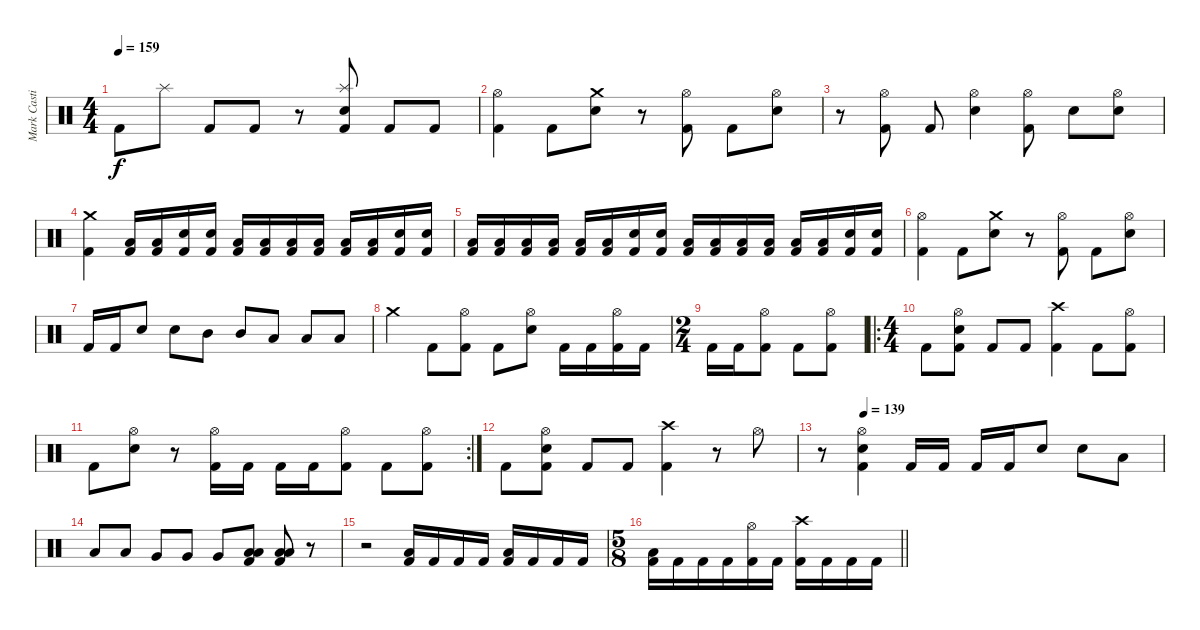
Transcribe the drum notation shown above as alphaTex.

\track ("Mark Castillo" "Mark Casti") {instrument percussion}
\staff {score}
\articulation defaults
\ts (4 4)
\tempo 159
\clef neutral
\ks c "Kick (hit) 2".8{dy f} "Splash (hit)".8 "Kick (hit) 2".8 "Kick (hit) 2".8
r.8 ("Splash (hit)" "Snare (hit) 2" "Kick (hit) 2").8 "Kick (hit) 2".8 "Kick (hit) 2".8 |
("Hi-Hat (open)" "Kick (hit) 2").4 "Kick (hit) 2".8 ("Crash medium (hit)" "Snare (hit) 2").8 r.8 ("Hi-Hat (open)" "Kick (hit) 2").8 "Kick (hit) 2".8 ("Hi-Hat (open)" "Snare (hit) 2").8 |
r.8 ("Hi-Hat (open)" "Kick (hit) 2").8 "Kick (hit) 2".8 ("Hi-Hat (open)" "Snare (hit) 2").4 ("Hi-Hat (open)" "Kick (hit) 2").8 "Snare (hit) 2".8 ("Hi-Hat (open)" "Snare (hit) 2").8 |
("Crash medium (hit)" "Kick (hit) 2").4 ("Low Tom (hit)" "Kick (hit) 2").16 ("Low Tom (hit)" "Kick (hit) 2").16 ("Snare (hit) 2" "Kick (hit) 2").16 ("Snare (hit) 2" "Kick (hit) 2").16 ("Low Tom (hit)" "Kick (hit) 2").16 ("Low Tom (hit)" "Kick (hit) 2").16 ("Low Tom (hit)" "Kick (hit) 2").16 ("Low Tom (hit)" "Kick (hit) 2").16 ("Low Tom (hit)" "Kick (hit) 2").16 ("Low Tom (hit)" "Kick (hit) 2").16 ("Snare (hit) 2" "Kick (hit) 2").16 ("Snare (hit) 2" "Kick (hit) 2").16 |
("Low Tom (hit)" "Kick (hit) 2").16 ("Low Tom (hit)" "Kick (hit) 2").16 ("Low Tom (hit)" "Kick (hit) 2").16 ("Low Tom (hit)" "Kick (hit) 2").16 ("Low Tom (hit)" "Kick (hit) 2").16 ("Low Tom (hit)" "Kick (hit) 2").16 ("Snare (hit) 2" "Kick (hit) 2").16 ("Snare (hit) 2" "Kick (hit) 2").16 ("Low Tom (hit)" "Kick (hit) 2").16 ("Low Tom (hit)" "Kick (hit) 2").16 ("Low Tom (hit)" "Kick (hit) 2").16 ("Low Tom (hit)" "Kick (hit) 2").16 ("Low Tom (hit)" "Kick (hit) 2").16 ("Low Tom (hit)" "Kick (hit) 2").16 ("Snare (hit) 2" "Kick (hit) 2").16 ("Snare (hit) 2" "Kick (hit) 2").16 |
("Hi-Hat (open)" "Kick (hit) 2").4 "Kick (hit) 2".8 ("Crash medium (hit)" "Snare (hit) 2").8 r.8 ("Hi-Hat (open)" "Kick (hit) 2").8 "Kick (hit) 2".8 ("Hi-Hat (open)" "Snare (hit) 2").8 |
"Kick (hit) 2".16 "Kick (hit) 2".16 "Snare (hit) 2".8 "Snare (hit) 2".8 "Mid Tom (hit)".8 "Mid Tom (hit)".8 "Low Tom (hit)".8 "Low Tom (hit)".8 "Low Floor Tom (hit)".8 |
"Crash medium (hit)".4 "Kick (hit) 2".8 ("Hi-Hat (open)" "Kick (hit) 2").8 "Kick (hit) 2".8 ("Hi-Hat (open)" "Snare (hit) 2").8 "Kick (hit) 2".16 "Kick (hit) 2".16 ("Hi-Hat (open)" "Kick (hit) 2").16 "Kick (hit) 2".16 |
\ts (2 4)
"Kick (hit) 2".16 "Kick (hit) 2".16 ("Hi-Hat (open)" "Kick (hit) 2").8 "Kick (hit) 2".8 ("Hi-Hat (open)" "Kick (hit) 2").8 |
\ro
\ts (4 4)
"Kick (hit) 2".8 ("Hi-Hat (open)" "Snare (hit) 2" "Kick (hit) 2").8 "Kick (hit) 2".8 "Kick (hit) 2".8 ("Crash high (hit)" "Kick (hit) 2").4 "Kick (hit) 2".8 ("Hi-Hat (open)" "Kick (hit) 2").8 |
\rc 2 "Kick (hit) 2".8
("Hi-Hat (open)" "Snare (hit) 2").8 r.8 ("Hi-Hat (open)" "Kick (hit) 2").16 "Kick (hit) 2".16 "Kick (hit) 2".16 "Kick (hit) 2".16 ("Hi-Hat (open)" "Kick (hit) 2").8 "Kick (hit) 2".8 ("Hi-Hat (open)" "Kick (hit) 2").8 |
"Kick (hit) 2".8 ("Hi-Hat (open)" "Snare (hit) 2" "Kick (hit) 2").8 "Kick (hit) 2".8 "Kick (hit) 2".8 ("Crash high (hit)" "Kick (hit) 2").4 r.8 "Hi-Hat (open)".8 |
\tempo (139 0.125)
r.8 ("Hi-Hat (open)" "Snare (hit) 2" "Kick (hit) 2").4 "Kick (hit) 2".16 "Kick (hit) 2".16 "Kick (hit) 2".16 "Kick (hit) 2".16 "Snare (hit) 2".8 "Snare (hit) 2".8 "Low Tom (hit)".8 |
"Low Tom (hit)".8 "Low Tom (hit)".8 "Very Low Tom (hit)".8 "Very Low Tom (hit)".8 "Very Low Tom (hit)".8 ("Low Floor Tom (hit)" "Low Floor Tom (hit)" "Kick (hit) 2").8 ("Low Floor Tom (hit)" "Low Floor Tom (hit)" "Kick (hit) 2").8 r.8 |
r.2 ("Low Floor Tom (hit)" "Kick (hit) 2").16 "Kick (hit) 2".16 "Kick (hit) 2".16 "Kick (hit) 2".16 ("Low Floor Tom (hit)" "Kick (hit) 2").16 "Kick (hit) 2".16 "Kick (hit) 2".16 "Kick (hit) 2".16 |
\ts (5 8)
\barLineRight lightlight
("Low Floor Tom (hit)" "Kick (hit) 2").16 "Kick (hit) 2".16 "Kick (hit) 2".16 "Kick (hit) 2".16 ("Hi-Hat (open)" "Kick (hit) 2").16 "Kick (hit) 2".16 ("Crash high (hit)" "Kick (hit) 2").16 "Kick (hit) 2".16 "Kick (hit) 2".16 "Kick (hit) 2".16
